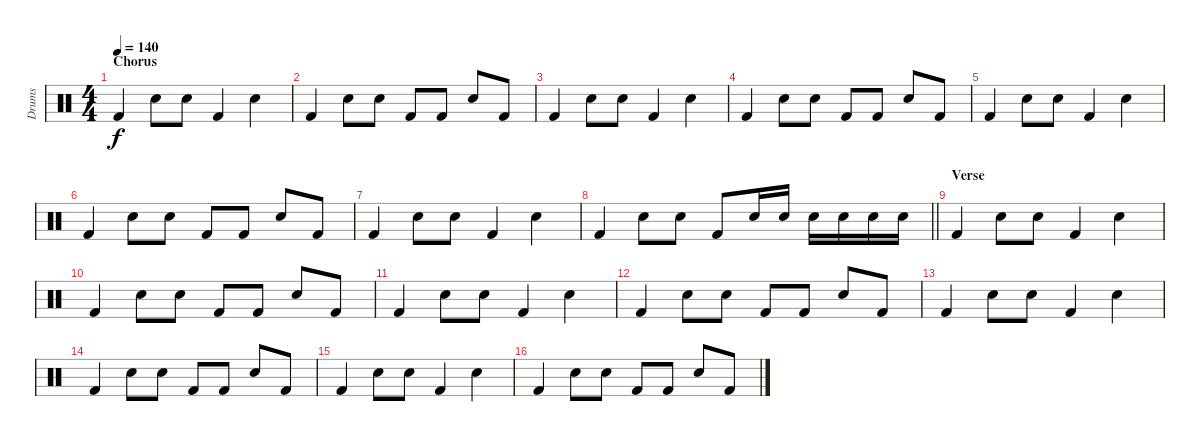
\track ("Drums" "Drums") {instrument percussion}
\staff {score}
\articulation defaults
\ts (4 4)
\section ("" "Chorus")
\tempo 140
\clef neutral
\ks c "Kick (hit) 2".4{dy f} "Snare (hit) 2".8 "Snare (hit) 2".8 "Kick (hit) 2".4 "Snare (hit) 2".4
|
"Kick (hit) 2".4 "Snare (hit) 2".8 "Snare (hit) 2".8 "Kick (hit) 2".8 "Kick (hit) 2".8 "Snare (hit) 2".8 "Kick (hit) 2".8 |
"Kick (hit) 2".4 "Snare (hit) 2".8 "Snare (hit) 2".8 "Kick (hit) 2".4 "Snare (hit) 2".4 |
"Kick (hit) 2".4 "Snare (hit) 2".8 "Snare (hit) 2".8 "Kick (hit) 2".8 "Kick (hit) 2".8 "Snare (hit) 2".8 "Kick (hit) 2".8 |
"Kick (hit) 2".4 "Snare (hit) 2".8 "Snare (hit) 2".8 "Kick (hit) 2".4 "Snare (hit) 2".4 |
"Kick (hit) 2".4 "Snare (hit) 2".8 "Snare (hit) 2".8 "Kick (hit) 2".8 "Kick (hit) 2".8 "Snare (hit) 2".8 "Kick (hit) 2".8 |
"Kick (hit) 2".4 "Snare (hit) 2".8 "Snare (hit) 2".8 "Kick (hit) 2".4 "Snare (hit) 2".4 |
\barLineRight lightlight "Kick (hit) 2".4 "Snare (hit) 2".8 "Snare (hit) 2".8 "Kick (hit) 2".8 "Snare (hit) 2".16 "Snare (hit) 2".16 "Snare (hit) 2".16 "Snare (hit) 2".16 "Snare (hit) 2".16 "Snare (hit) 2".16
|
\section ("" "Verse")
"Kick (hit) 2".4 "Snare (hit) 2".8 "Snare (hit) 2".8 "Kick (hit) 2".4 "Snare (hit) 2".4 |
"Kick (hit) 2".4 "Snare (hit) 2".8 "Snare (hit) 2".8 "Kick (hit) 2".8 "Kick (hit) 2".8 "Snare (hit) 2".8 "Kick (hit) 2".8 |
"Kick (hit) 2".4 "Snare (hit) 2".8 "Snare (hit) 2".8 "Kick (hit) 2".4 "Snare (hit) 2".4 |
"Kick (hit) 2".4 "Snare (hit) 2".8 "Snare (hit) 2".8 "Kick (hit) 2".8 "Kick (hit) 2".8 "Snare (hit) 2".8 "Kick (hit) 2".8 |
"Kick (hit) 2".4 "Snare (hit) 2".8 "Snare (hit) 2".8 "Kick (hit) 2".4 "Snare (hit) 2".4 |
"Kick (hit) 2".4 "Snare (hit) 2".8 "Snare (hit) 2".8 "Kick (hit) 2".8 "Kick (hit) 2".8 "Snare (hit) 2".8 "Kick (hit) 2".8 |
"Kick (hit) 2".4 "Snare (hit) 2".8 "Snare (hit) 2".8 "Kick (hit) 2".4 "Snare (hit) 2".4 |
"Kick (hit) 2".4 "Snare (hit) 2".8 "Snare (hit) 2".8 "Kick (hit) 2".8 "Kick (hit) 2".8 "Snare (hit) 2".8 "Kick (hit) 2".8
